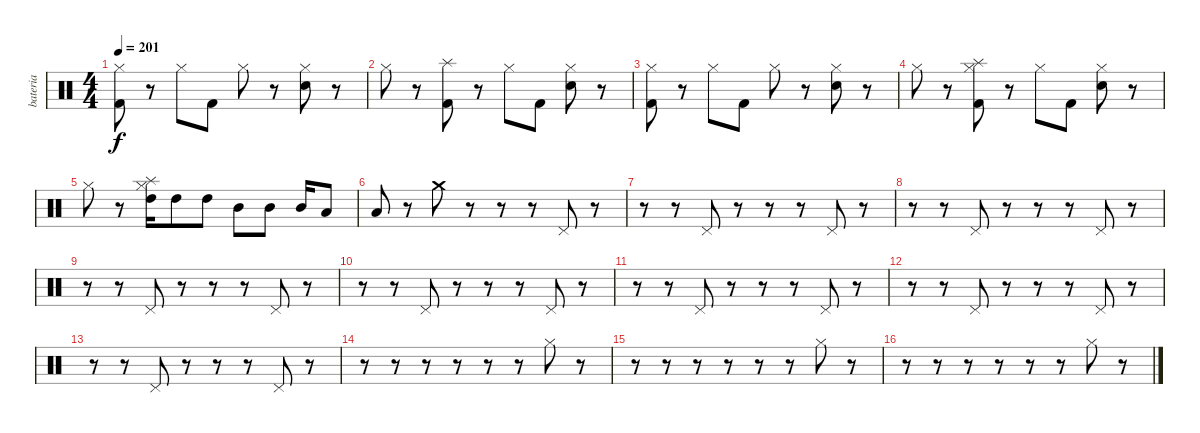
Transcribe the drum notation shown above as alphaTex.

\track ("bateria" "bateria") {solo instrument percussion}
\staff {score}
\articulation defaults
\ts (4 4)
\tempo 201
\clef neutral
\ks c
("Hi-Hat (closed)" "Kick (hit) 2").8{dy f} r.8 "Hi-Hat (closed)".8 "Kick (hit) 2".8 "Hi-Hat (closed)".8 r.8 ("Hi-Hat (closed)" "Electric Snare (hit)").8 r.8 |
"Hi-Hat (closed)".8 r.8 ("Splash (hit)" "Kick (hit) 2").8 r.8 "Hi-Hat (closed)".8 "Kick (hit) 2".8 ("Hi-Hat (closed)" "Electric Snare (hit)").8 r.8 |
("Hi-Hat (closed)" "Kick (hit) 2").8 r.8 "Hi-Hat (closed)".8 "Kick (hit) 2".8 "Hi-Hat (closed)".8 r.8 ("Hi-Hat (closed)" "Electric Snare (hit)").8 r.8 |
"Hi-Hat (closed)".8 r.8 ("Hi-Hat (closed)" "Splash (hit)" "Kick (hit) 2").8 r.8 "Hi-Hat (closed)".8 "Kick (hit) 2".8 ("Hi-Hat (closed)" "Electric Snare (hit)").8 r.8 |
"Hi-Hat (closed)".8 r.8 ("High Tom (hit)" "Splash (hit)" "Hi-Hat (closed)").16 "High Tom (hit)".8 "High Tom (hit)".8 "Mid Tom (hit)".8 "Mid Tom (hit)".8 "Mid Tom (hit)".16 "Low Tom (hit)".8 |
"Low Tom (hit)".8 r.8 "Crash medium (hit)".8 r.8 r.8 r.8 "Pedal Hi-Hat (hit)".8 r.8 |
r.8 r.8 "Pedal Hi-Hat (hit)".8 r.8 r.8 r.8 "Pedal Hi-Hat (hit)".8 r.8 |
r.8 r.8 "Pedal Hi-Hat (hit)".8 r.8 r.8 r.8 "Pedal Hi-Hat (hit)".8 r.8 |
r.8 r.8 "Pedal Hi-Hat (hit)".8 r.8 r.8 r.8 "Pedal Hi-Hat (hit)".8 r.8 |
r.8 r.8 "Pedal Hi-Hat (hit)".8 r.8 r.8 r.8 "Pedal Hi-Hat (hit)".8 r.8 |
r.8 r.8 "Pedal Hi-Hat (hit)".8 r.8 r.8 r.8 "Pedal Hi-Hat (hit)".8 r.8 |
r.8 r.8 "Pedal Hi-Hat (hit)".8 r.8 r.8 r.8 "Pedal Hi-Hat (hit)".8 r.8 |
r.8 r.8 "Pedal Hi-Hat (hit)".8 r.8 r.8 r.8 "Pedal Hi-Hat (hit)".8 r.8 |
r.8 r.8 r.8 r.8 r.8 r.8 "Hi-Hat (closed)".8 r.8 |
r.8 r.8 r.8 r.8 r.8 r.8 "Hi-Hat (closed)".8 r.8 |
r.8 r.8 r.8 r.8 r.8 r.8 "Hi-Hat (closed)".8 r.8
